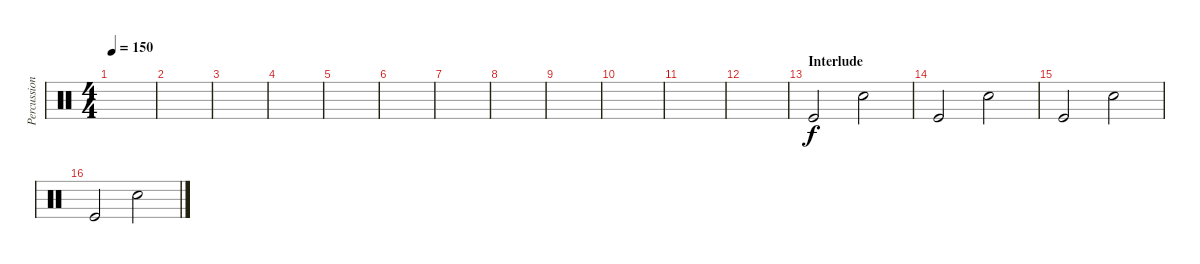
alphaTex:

\track ("Percussions" "Percussion") {instrument percussion}
\staff {score}
\articulation defaults
\ts (4 4)
\tempo 150
\clef neutral
\ks c
|
|
|
|
|
|
|
|
|
|
|
|
\section ("" "Interlude")
"Kick (hit)".2 "Electric Snare (hit)".2 |
"Kick (hit)".2 "Electric Snare (hit)".2 |
"Kick (hit)".2 "Electric Snare (hit)".2 |
"Kick (hit)".2 "Electric Snare (hit)".2
